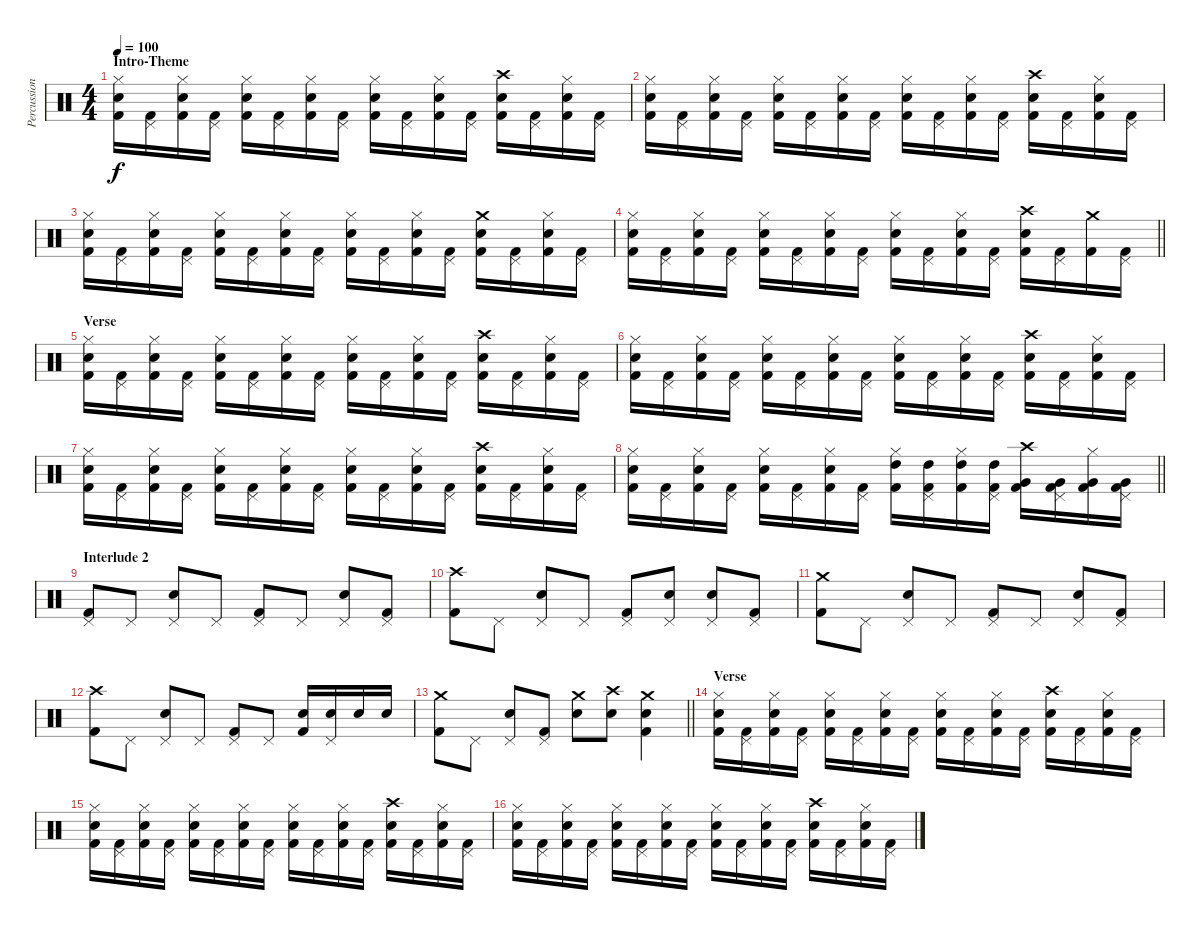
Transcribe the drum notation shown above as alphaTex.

\track ("Percussion" "Percussion") {instrument percussion}
\staff {score}
\articulation defaults
\ts (4 4)
\section ("" "Intro-Theme")
\tempo 100
\clef neutral
\ks c
("Hi-Hat (closed)" "Snare (hit) 2" "Kick (hit) 2").16{dy f} ("Pedal Hi-Hat (hit)" "Kick (hit) 2").16 ("Hi-Hat (closed)" "Snare (hit) 2" "Kick (hit) 2").16 ("Pedal Hi-Hat (hit)" "Kick (hit) 2").16 ("Hi-Hat (closed)" "Snare (hit) 2" "Kick (hit) 2").16 ("Pedal Hi-Hat (hit)" "Kick (hit) 2").16 ("Hi-Hat (closed)" "Snare (hit) 2" "Kick (hit) 2").16 ("Pedal Hi-Hat (hit)" "Kick (hit) 2").16 ("Hi-Hat (closed)" "Snare (hit) 2" "Kick (hit) 2").16 ("Pedal Hi-Hat (hit)" "Kick (hit) 2").16 ("Hi-Hat (closed)" "Snare (hit) 2" "Kick (hit) 2").16 ("Pedal Hi-Hat (hit)" "Kick (hit) 2").16 ("Crash high (hit)" "Snare (hit) 2" "Kick (hit) 2").16 ("Pedal Hi-Hat (hit)" "Kick (hit) 2").16 ("Hi-Hat (closed)" "Snare (hit) 2" "Kick (hit) 2").16 ("Pedal Hi-Hat (hit)" "Kick (hit) 2").16 |
("Hi-Hat (closed)" "Snare (hit) 2" "Kick (hit) 2").16 ("Pedal Hi-Hat (hit)" "Kick (hit) 2").16 ("Hi-Hat (closed)" "Snare (hit) 2" "Kick (hit) 2").16 ("Pedal Hi-Hat (hit)" "Kick (hit) 2").16 ("Hi-Hat (closed)" "Snare (hit) 2" "Kick (hit) 2").16 ("Pedal Hi-Hat (hit)" "Kick (hit) 2").16 ("Hi-Hat (closed)" "Snare (hit) 2" "Kick (hit) 2").16 ("Pedal Hi-Hat (hit)" "Kick (hit) 2").16 ("Hi-Hat (closed)" "Snare (hit) 2" "Kick (hit) 2").16 ("Pedal Hi-Hat (hit)" "Kick (hit) 2").16 ("Hi-Hat (closed)" "Snare (hit) 2" "Kick (hit) 2").16 ("Pedal Hi-Hat (hit)" "Kick (hit) 2").16 ("Crash high (hit)" "Snare (hit) 2" "Kick (hit) 2").16 ("Pedal Hi-Hat (hit)" "Kick (hit) 2").16 ("Hi-Hat (closed)" "Snare (hit) 2" "Kick (hit) 2").16 ("Pedal Hi-Hat (hit)" "Kick (hit) 2").16 |
("Hi-Hat (closed)" "Snare (hit) 2" "Kick (hit) 2").16 ("Pedal Hi-Hat (hit)" "Kick (hit) 2").16 ("Hi-Hat (closed)" "Snare (hit) 2" "Kick (hit) 2").16 ("Pedal Hi-Hat (hit)" "Kick (hit) 2").16 ("Hi-Hat (closed)" "Snare (hit) 2" "Kick (hit) 2").16 ("Pedal Hi-Hat (hit)" "Kick (hit) 2").16 ("Hi-Hat (closed)" "Snare (hit) 2" "Kick (hit) 2").16 ("Pedal Hi-Hat (hit)" "Kick (hit) 2").16 ("Hi-Hat (closed)" "Snare (hit) 2" "Kick (hit) 2").16 ("Pedal Hi-Hat (hit)" "Kick (hit) 2").16 ("Hi-Hat (closed)" "Snare (hit) 2" "Kick (hit) 2").16 ("Pedal Hi-Hat (hit)" "Kick (hit) 2").16 ("Crash medium (hit)" "Snare (hit) 2" "Kick (hit) 2").16 ("Pedal Hi-Hat (hit)" "Kick (hit) 2").16 ("Hi-Hat (closed)" "Snare (hit) 2" "Kick (hit) 2").16 ("Pedal Hi-Hat (hit)" "Kick (hit) 2").16 |
\barLineRight lightlight
("Hi-Hat (closed)" "Snare (hit) 2" "Kick (hit) 2").16 ("Pedal Hi-Hat (hit)" "Kick (hit) 2").16 ("Hi-Hat (closed)" "Snare (hit) 2" "Kick (hit) 2").16 ("Pedal Hi-Hat (hit)" "Kick (hit) 2").16 ("Hi-Hat (closed)" "Snare (hit) 2" "Kick (hit) 2").16 ("Pedal Hi-Hat (hit)" "Kick (hit) 2").16 ("Hi-Hat (closed)" "Snare (hit) 2" "Kick (hit) 2").16 ("Pedal Hi-Hat (hit)" "Kick (hit) 2").16 ("Hi-Hat (closed)" "Snare (hit) 2" "Kick (hit) 2").16 ("Pedal Hi-Hat (hit)" "Kick (hit) 2").16 ("Hi-Hat (closed)" "Snare (hit) 2" "Kick (hit) 2").16 ("Pedal Hi-Hat (hit)" "Kick (hit) 2").16 ("Crash high (hit)" "Snare (hit) 2" "Kick (hit) 2").16 ("Pedal Hi-Hat (hit)" "Kick (hit) 2").16 ("Crash medium (hit)" "Kick (hit) 2").16 ("Pedal Hi-Hat (hit)" "Kick (hit) 2").16 |
\section ("" "Verse")
("Hi-Hat (closed)" "Snare (hit) 2" "Kick (hit) 2").16 ("Pedal Hi-Hat (hit)" "Kick (hit) 2").16 ("Hi-Hat (closed)" "Snare (hit) 2" "Kick (hit) 2").16 ("Pedal Hi-Hat (hit)" "Kick (hit) 2").16 ("Hi-Hat (closed)" "Snare (hit) 2" "Kick (hit) 2").16 ("Pedal Hi-Hat (hit)" "Kick (hit) 2").16 ("Hi-Hat (closed)" "Snare (hit) 2" "Kick (hit) 2").16 ("Pedal Hi-Hat (hit)" "Kick (hit) 2").16 ("Hi-Hat (closed)" "Snare (hit) 2" "Kick (hit) 2").16 ("Pedal Hi-Hat (hit)" "Kick (hit) 2").16 ("Hi-Hat (closed)" "Snare (hit) 2" "Kick (hit) 2").16 ("Pedal Hi-Hat (hit)" "Kick (hit) 2").16 ("Crash high (hit)" "Snare (hit) 2" "Kick (hit) 2").16 ("Pedal Hi-Hat (hit)" "Kick (hit) 2").16 ("Hi-Hat (closed)" "Snare (hit) 2" "Kick (hit) 2").16 ("Pedal Hi-Hat (hit)" "Kick (hit) 2").16 |
("Hi-Hat (closed)" "Snare (hit) 2" "Kick (hit) 2").16 ("Pedal Hi-Hat (hit)" "Kick (hit) 2").16 ("Hi-Hat (closed)" "Snare (hit) 2" "Kick (hit) 2").16 ("Pedal Hi-Hat (hit)" "Kick (hit) 2").16 ("Hi-Hat (closed)" "Snare (hit) 2" "Kick (hit) 2").16 ("Pedal Hi-Hat (hit)" "Kick (hit) 2").16 ("Hi-Hat (closed)" "Snare (hit) 2" "Kick (hit) 2").16 ("Pedal Hi-Hat (hit)" "Kick (hit) 2").16 ("Hi-Hat (closed)" "Snare (hit) 2" "Kick (hit) 2").16 ("Pedal Hi-Hat (hit)" "Kick (hit) 2").16 ("Hi-Hat (closed)" "Snare (hit) 2" "Kick (hit) 2").16 ("Pedal Hi-Hat (hit)" "Kick (hit) 2").16 ("Crash high (hit)" "Snare (hit) 2" "Kick (hit) 2").16 ("Pedal Hi-Hat (hit)" "Kick (hit) 2").16 ("Hi-Hat (closed)" "Snare (hit) 2" "Kick (hit) 2").16 ("Pedal Hi-Hat (hit)" "Kick (hit) 2").16 |
("Hi-Hat (closed)" "Snare (hit) 2" "Kick (hit) 2").16 ("Pedal Hi-Hat (hit)" "Kick (hit) 2").16 ("Hi-Hat (closed)" "Snare (hit) 2" "Kick (hit) 2").16 ("Pedal Hi-Hat (hit)" "Kick (hit) 2").16 ("Hi-Hat (closed)" "Snare (hit) 2" "Kick (hit) 2").16 ("Pedal Hi-Hat (hit)" "Kick (hit) 2").16 ("Hi-Hat (closed)" "Snare (hit) 2" "Kick (hit) 2").16 ("Pedal Hi-Hat (hit)" "Kick (hit) 2").16 ("Hi-Hat (closed)" "Snare (hit) 2" "Kick (hit) 2").16 ("Pedal Hi-Hat (hit)" "Kick (hit) 2").16 ("Hi-Hat (closed)" "Snare (hit) 2" "Kick (hit) 2").16 ("Pedal Hi-Hat (hit)" "Kick (hit) 2").16 ("Crash high (hit)" "Snare (hit) 2" "Kick (hit) 2").16 ("Pedal Hi-Hat (hit)" "Kick (hit) 2").16 ("Hi-Hat (closed)" "Snare (hit) 2" "Kick (hit) 2").16 ("Pedal Hi-Hat (hit)" "Kick (hit) 2").16 |
\barLineRight lightlight
("Hi-Hat (closed)" "Snare (hit) 2" "Kick (hit) 2").16 ("Pedal Hi-Hat (hit)" "Kick (hit) 2").16 ("Hi-Hat (closed)" "Snare (hit) 2" "Kick (hit) 2").16 ("Pedal Hi-Hat (hit)" "Kick (hit) 2").16 ("Hi-Hat (closed)" "Snare (hit) 2" "Kick (hit) 2").16 ("Pedal Hi-Hat (hit)" "Kick (hit) 2").16 ("Hi-Hat (closed)" "Snare (hit) 2" "Kick (hit) 2").16 ("Pedal Hi-Hat (hit)" "Kick (hit) 2").16 ("Hi-Hat (closed)" "High Tom (hit)" "Kick (hit) 2").16 ("Pedal Hi-Hat (hit)" "High Tom (hit)" "Kick (hit) 2").16 ("Hi-Hat (closed)" "High Tom (hit)" "Kick (hit) 2").16 ("Pedal Hi-Hat (hit)" "High Tom (hit)" "Kick (hit) 2").16 ("Crash high (hit)" "Very Low Tom (hit)" "Kick (hit) 2").16 ("Pedal Hi-Hat (hit)" "Very Low Tom (hit)" "Kick (hit) 2").16 ("Hi-Hat (closed)" "Very Low Tom (hit)" "Kick (hit) 2").16 ("Pedal Hi-Hat (hit)" "Very Low Tom (hit)" "Kick (hit) 2").16 |
\section ("" "Interlude 2")
("Pedal Hi-Hat (hit)" "Kick (hit) 2").8 "Pedal Hi-Hat (hit)".8 ("Pedal Hi-Hat (hit)" "Snare (hit) 2").8 "Pedal Hi-Hat (hit)".8 ("Pedal Hi-Hat (hit)" "Kick (hit) 2").8 "Pedal Hi-Hat (hit)".8 ("Pedal Hi-Hat (hit)" "Snare (hit) 2").8 ("Pedal Hi-Hat (hit)" "Kick (hit) 2").8 |
("Crash high (hit)" "Kick (hit) 2").8 "Pedal Hi-Hat (hit)".8 ("Pedal Hi-Hat (hit)" "Snare (hit) 2").8 "Pedal Hi-Hat (hit)".8 ("Pedal Hi-Hat (hit)" "Kick (hit) 2").8 ("Pedal Hi-Hat (hit)" "Snare (hit) 2").8 ("Pedal Hi-Hat (hit)" "Snare (hit) 2").8 ("Pedal Hi-Hat (hit)" "Kick (hit) 2").8 |
("Crash medium (hit)" "Kick (hit) 2").8 "Pedal Hi-Hat (hit)".8 ("Pedal Hi-Hat (hit)" "Snare (hit) 2").8 "Pedal Hi-Hat (hit)".8 ("Pedal Hi-Hat (hit)" "Kick (hit) 2").8 "Pedal Hi-Hat (hit)".8 ("Pedal Hi-Hat (hit)" "Snare (hit) 2").8 ("Pedal Hi-Hat (hit)" "Kick (hit) 2").8 |
("Crash high (hit)" "Kick (hit) 2").8 "Pedal Hi-Hat (hit)".8 ("Pedal Hi-Hat (hit)" "Snare (hit) 2").8 "Pedal Hi-Hat (hit)".8 ("Pedal Hi-Hat (hit)" "Kick (hit) 2").8 "Pedal Hi-Hat (hit)".8 ("Snare (hit) 2" "Kick (hit) 2").16 ("Pedal Hi-Hat (hit)" "Snare (hit) 2").16 "Snare (hit) 2".16 "Snare (hit) 2".16 |
\barLineRight lightlight
("Crash medium (hit)" "Kick (hit) 2").8 "Pedal Hi-Hat (hit)".8 ("Pedal Hi-Hat (hit)" "Snare (hit) 2").8 ("Pedal Hi-Hat (hit)" "Kick (hit) 2").8 ("Crash medium (hit)" "Snare (hit) 2").8 ("Crash high (hit)" "Snare (hit) 2").8 ("Crash medium (hit)" "Snare (hit) 2" "Kick (hit) 2").4 |
\section ("" "Verse")
("Hi-Hat (closed)" "Snare (hit) 2" "Kick (hit) 2").16 ("Pedal Hi-Hat (hit)" "Kick (hit) 2").16 ("Hi-Hat (closed)" "Snare (hit) 2" "Kick (hit) 2").16 ("Pedal Hi-Hat (hit)" "Kick (hit) 2").16 ("Hi-Hat (closed)" "Snare (hit) 2" "Kick (hit) 2").16 ("Pedal Hi-Hat (hit)" "Kick (hit) 2").16 ("Hi-Hat (closed)" "Snare (hit) 2" "Kick (hit) 2").16 ("Pedal Hi-Hat (hit)" "Kick (hit) 2").16 ("Hi-Hat (closed)" "Snare (hit) 2" "Kick (hit) 2").16 ("Pedal Hi-Hat (hit)" "Kick (hit) 2").16 ("Hi-Hat (closed)" "Snare (hit) 2" "Kick (hit) 2").16 ("Pedal Hi-Hat (hit)" "Kick (hit) 2").16 ("Crash high (hit)" "Snare (hit) 2" "Kick (hit) 2").16 ("Pedal Hi-Hat (hit)" "Kick (hit) 2").16 ("Hi-Hat (closed)" "Snare (hit) 2" "Kick (hit) 2").16 ("Pedal Hi-Hat (hit)" "Kick (hit) 2").16 |
("Hi-Hat (closed)" "Snare (hit) 2" "Kick (hit) 2").16 ("Pedal Hi-Hat (hit)" "Kick (hit) 2").16 ("Hi-Hat (closed)" "Snare (hit) 2" "Kick (hit) 2").16 ("Pedal Hi-Hat (hit)" "Kick (hit) 2").16 ("Hi-Hat (closed)" "Snare (hit) 2" "Kick (hit) 2").16 ("Pedal Hi-Hat (hit)" "Kick (hit) 2").16 ("Hi-Hat (closed)" "Snare (hit) 2" "Kick (hit) 2").16 ("Pedal Hi-Hat (hit)" "Kick (hit) 2").16 ("Hi-Hat (closed)" "Snare (hit) 2" "Kick (hit) 2").16 ("Pedal Hi-Hat (hit)" "Kick (hit) 2").16 ("Hi-Hat (closed)" "Snare (hit) 2" "Kick (hit) 2").16 ("Pedal Hi-Hat (hit)" "Kick (hit) 2").16 ("Crash high (hit)" "Snare (hit) 2" "Kick (hit) 2").16 ("Pedal Hi-Hat (hit)" "Kick (hit) 2").16 ("Hi-Hat (closed)" "Snare (hit) 2" "Kick (hit) 2").16 ("Pedal Hi-Hat (hit)" "Kick (hit) 2").16 |
("Hi-Hat (closed)" "Snare (hit) 2" "Kick (hit) 2").16 ("Pedal Hi-Hat (hit)" "Kick (hit) 2").16 ("Hi-Hat (closed)" "Snare (hit) 2" "Kick (hit) 2").16 ("Pedal Hi-Hat (hit)" "Kick (hit) 2").16 ("Hi-Hat (closed)" "Snare (hit) 2" "Kick (hit) 2").16 ("Pedal Hi-Hat (hit)" "Kick (hit) 2").16 ("Hi-Hat (closed)" "Snare (hit) 2" "Kick (hit) 2").16 ("Pedal Hi-Hat (hit)" "Kick (hit) 2").16 ("Hi-Hat (closed)" "Snare (hit) 2" "Kick (hit) 2").16 ("Pedal Hi-Hat (hit)" "Kick (hit) 2").16 ("Hi-Hat (closed)" "Snare (hit) 2" "Kick (hit) 2").16 ("Pedal Hi-Hat (hit)" "Kick (hit) 2").16 ("Crash high (hit)" "Snare (hit) 2" "Kick (hit) 2").16 ("Pedal Hi-Hat (hit)" "Kick (hit) 2").16 ("Hi-Hat (closed)" "Snare (hit) 2" "Kick (hit) 2").16 ("Pedal Hi-Hat (hit)" "Kick (hit) 2").16
